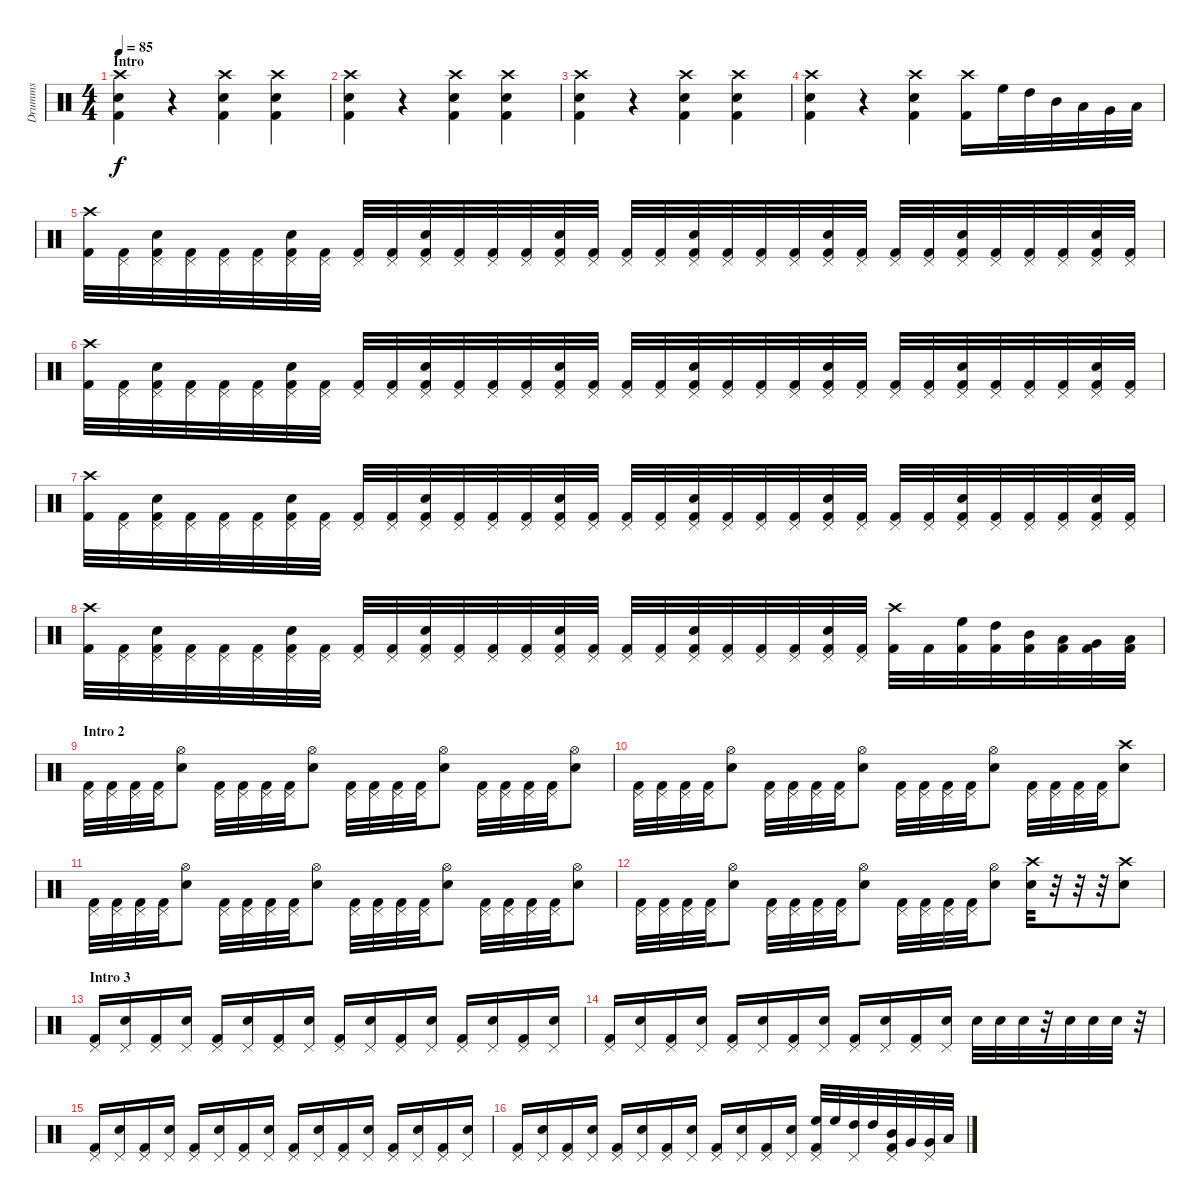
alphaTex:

\track ("Drumms" "Drumms") {instrument percussion}
\staff {score}
\articulation defaults
\ts (4 4)
\section ("" "Intro")
\tempo 85
\clef neutral
\ks c
("Crash high (hit)" "Snare (hit) 2" "Kick (hit) 2").4{dy f} r.4 ("Crash high (hit)" "Snare (hit) 2" "Kick (hit) 2").4 ("Crash high (hit)" "Snare (hit) 2" "Kick (hit) 2").4 |
("Crash high (hit)" "Snare (hit) 2" "Kick (hit) 2").4 r.4 ("Crash high (hit)" "Snare (hit) 2" "Kick (hit) 2").4 ("Crash high (hit)" "Snare (hit) 2" "Kick (hit) 2").4 |
("Crash high (hit)" "Snare (hit) 2" "Kick (hit) 2").4 r.4 ("Crash high (hit)" "Snare (hit) 2" "Kick (hit) 2").4 ("Crash high (hit)" "Snare (hit) 2" "Kick (hit) 2").4 |
("Crash high (hit)" "Snare (hit) 2" "Kick (hit) 2").4 r.4 ("Crash high (hit)" "Snare (hit) 2" "Kick (hit) 2").4 ("Crash high (hit)" "Kick (hit) 2").16 "High Floor Tom (hit)".32 "High Tom (hit)".32 "Mid Tom (hit)".32 "Low Tom (hit)".32 "Very Low Tom (hit)".32 "Low Floor Tom (hit)".32 |
("Crash high (hit)" "Kick (hit) 2").32 ("Pedal Hi-Hat (hit)" "Kick (hit) 2").32 ("Pedal Hi-Hat (hit)" "Snare (hit) 2" "Kick (hit) 2").32 ("Pedal Hi-Hat (hit)" "Kick (hit) 2").32 ("Pedal Hi-Hat (hit)" "Kick (hit) 2").32 ("Pedal Hi-Hat (hit)" "Kick (hit) 2").32 ("Pedal Hi-Hat (hit)" "Snare (hit) 2" "Kick (hit) 2").32 ("Pedal Hi-Hat (hit)" "Kick (hit) 2").32 ("Pedal Hi-Hat (hit)" "Kick (hit) 2").32 ("Pedal Hi-Hat (hit)" "Kick (hit) 2").32 ("Pedal Hi-Hat (hit)" "Snare (hit) 2" "Kick (hit) 2").32 ("Pedal Hi-Hat (hit)" "Kick (hit) 2").32 ("Pedal Hi-Hat (hit)" "Kick (hit) 2").32 ("Pedal Hi-Hat (hit)" "Kick (hit) 2").32 ("Pedal Hi-Hat (hit)" "Snare (hit) 2" "Kick (hit) 2").32 ("Pedal Hi-Hat (hit)" "Kick (hit) 2").32 ("Pedal Hi-Hat (hit)" "Kick (hit) 2").32 ("Pedal Hi-Hat (hit)" "Kick (hit) 2").32 ("Pedal Hi-Hat (hit)" "Snare (hit) 2" "Kick (hit) 2").32 ("Pedal Hi-Hat (hit)" "Kick (hit) 2").32 ("Pedal Hi-Hat (hit)" "Kick (hit) 2").32 ("Pedal Hi-Hat (hit)" "Kick (hit) 2").32 ("Pedal Hi-Hat (hit)" "Snare (hit) 2" "Kick (hit) 2").32 ("Pedal Hi-Hat (hit)" "Kick (hit) 2").32 ("Pedal Hi-Hat (hit)" "Kick (hit) 2").32 ("Pedal Hi-Hat (hit)" "Kick (hit) 2").32 ("Pedal Hi-Hat (hit)" "Snare (hit) 2" "Kick (hit) 2").32 ("Pedal Hi-Hat (hit)" "Kick (hit) 2").32 ("Pedal Hi-Hat (hit)" "Kick (hit) 2").32 ("Pedal Hi-Hat (hit)" "Kick (hit) 2").32 ("Pedal Hi-Hat (hit)" "Snare (hit) 2" "Kick (hit) 2").32 ("Pedal Hi-Hat (hit)" "Kick (hit) 2").32 |
("Crash high (hit)" "Kick (hit) 2").32 ("Pedal Hi-Hat (hit)" "Kick (hit) 2").32 ("Pedal Hi-Hat (hit)" "Snare (hit) 2" "Kick (hit) 2").32 ("Pedal Hi-Hat (hit)" "Kick (hit) 2").32 ("Pedal Hi-Hat (hit)" "Kick (hit) 2").32 ("Pedal Hi-Hat (hit)" "Kick (hit) 2").32 ("Pedal Hi-Hat (hit)" "Snare (hit) 2" "Kick (hit) 2").32 ("Pedal Hi-Hat (hit)" "Kick (hit) 2").32 ("Pedal Hi-Hat (hit)" "Kick (hit) 2").32 ("Pedal Hi-Hat (hit)" "Kick (hit) 2").32 ("Pedal Hi-Hat (hit)" "Snare (hit) 2" "Kick (hit) 2").32 ("Pedal Hi-Hat (hit)" "Kick (hit) 2").32 ("Pedal Hi-Hat (hit)" "Kick (hit) 2").32 ("Pedal Hi-Hat (hit)" "Kick (hit) 2").32 ("Pedal Hi-Hat (hit)" "Snare (hit) 2" "Kick (hit) 2").32 ("Pedal Hi-Hat (hit)" "Kick (hit) 2").32 ("Pedal Hi-Hat (hit)" "Kick (hit) 2").32 ("Pedal Hi-Hat (hit)" "Kick (hit) 2").32 ("Pedal Hi-Hat (hit)" "Snare (hit) 2" "Kick (hit) 2").32 ("Pedal Hi-Hat (hit)" "Kick (hit) 2").32 ("Pedal Hi-Hat (hit)" "Kick (hit) 2").32 ("Pedal Hi-Hat (hit)" "Kick (hit) 2").32 ("Pedal Hi-Hat (hit)" "Snare (hit) 2" "Kick (hit) 2").32 ("Pedal Hi-Hat (hit)" "Kick (hit) 2").32 ("Pedal Hi-Hat (hit)" "Kick (hit) 2").32 ("Pedal Hi-Hat (hit)" "Kick (hit) 2").32 ("Pedal Hi-Hat (hit)" "Snare (hit) 2" "Kick (hit) 2").32 ("Pedal Hi-Hat (hit)" "Kick (hit) 2").32 ("Pedal Hi-Hat (hit)" "Kick (hit) 2").32 ("Pedal Hi-Hat (hit)" "Kick (hit) 2").32 ("Pedal Hi-Hat (hit)" "Snare (hit) 2" "Kick (hit) 2").32 ("Pedal Hi-Hat (hit)" "Kick (hit) 2").32 |
("Crash high (hit)" "Kick (hit) 2").32 ("Pedal Hi-Hat (hit)" "Kick (hit) 2").32 ("Pedal Hi-Hat (hit)" "Snare (hit) 2" "Kick (hit) 2").32 ("Pedal Hi-Hat (hit)" "Kick (hit) 2").32 ("Pedal Hi-Hat (hit)" "Kick (hit) 2").32 ("Pedal Hi-Hat (hit)" "Kick (hit) 2").32 ("Pedal Hi-Hat (hit)" "Snare (hit) 2" "Kick (hit) 2").32 ("Pedal Hi-Hat (hit)" "Kick (hit) 2").32 ("Pedal Hi-Hat (hit)" "Kick (hit) 2").32 ("Pedal Hi-Hat (hit)" "Kick (hit) 2").32 ("Pedal Hi-Hat (hit)" "Snare (hit) 2" "Kick (hit) 2").32 ("Pedal Hi-Hat (hit)" "Kick (hit) 2").32 ("Pedal Hi-Hat (hit)" "Kick (hit) 2").32 ("Pedal Hi-Hat (hit)" "Kick (hit) 2").32 ("Pedal Hi-Hat (hit)" "Snare (hit) 2" "Kick (hit) 2").32 ("Pedal Hi-Hat (hit)" "Kick (hit) 2").32 ("Pedal Hi-Hat (hit)" "Kick (hit) 2").32 ("Pedal Hi-Hat (hit)" "Kick (hit) 2").32 ("Pedal Hi-Hat (hit)" "Snare (hit) 2" "Kick (hit) 2").32 ("Pedal Hi-Hat (hit)" "Kick (hit) 2").32 ("Pedal Hi-Hat (hit)" "Kick (hit) 2").32 ("Pedal Hi-Hat (hit)" "Kick (hit) 2").32 ("Pedal Hi-Hat (hit)" "Snare (hit) 2" "Kick (hit) 2").32 ("Pedal Hi-Hat (hit)" "Kick (hit) 2").32 ("Pedal Hi-Hat (hit)" "Kick (hit) 2").32 ("Pedal Hi-Hat (hit)" "Kick (hit) 2").32 ("Pedal Hi-Hat (hit)" "Snare (hit) 2" "Kick (hit) 2").32 ("Pedal Hi-Hat (hit)" "Kick (hit) 2").32 ("Pedal Hi-Hat (hit)" "Kick (hit) 2").32 ("Pedal Hi-Hat (hit)" "Kick (hit) 2").32 ("Pedal Hi-Hat (hit)" "Snare (hit) 2" "Kick (hit) 2").32 ("Pedal Hi-Hat (hit)" "Kick (hit) 2").32 |
("Crash high (hit)" "Kick (hit) 2").32 ("Pedal Hi-Hat (hit)" "Kick (hit) 2").32 ("Pedal Hi-Hat (hit)" "Snare (hit) 2" "Kick (hit) 2").32 ("Pedal Hi-Hat (hit)" "Kick (hit) 2").32 ("Pedal Hi-Hat (hit)" "Kick (hit) 2").32 ("Pedal Hi-Hat (hit)" "Kick (hit) 2").32 ("Pedal Hi-Hat (hit)" "Snare (hit) 2" "Kick (hit) 2").32 ("Pedal Hi-Hat (hit)" "Kick (hit) 2").32 ("Pedal Hi-Hat (hit)" "Kick (hit) 2").32 ("Pedal Hi-Hat (hit)" "Kick (hit) 2").32 ("Pedal Hi-Hat (hit)" "Snare (hit) 2" "Kick (hit) 2").32 ("Pedal Hi-Hat (hit)" "Kick (hit) 2").32 ("Pedal Hi-Hat (hit)" "Kick (hit) 2").32 ("Pedal Hi-Hat (hit)" "Kick (hit) 2").32 ("Pedal Hi-Hat (hit)" "Snare (hit) 2" "Kick (hit) 2").32 ("Pedal Hi-Hat (hit)" "Kick (hit) 2").32 ("Pedal Hi-Hat (hit)" "Kick (hit) 2").32 ("Pedal Hi-Hat (hit)" "Kick (hit) 2").32 ("Pedal Hi-Hat (hit)" "Snare (hit) 2" "Kick (hit) 2").32 ("Pedal Hi-Hat (hit)" "Kick (hit) 2").32 ("Pedal Hi-Hat (hit)" "Kick (hit) 2").32 ("Pedal Hi-Hat (hit)" "Kick (hit) 2").32 ("Pedal Hi-Hat (hit)" "Snare (hit) 2" "Kick (hit) 2").32 ("Pedal Hi-Hat (hit)" "Kick (hit) 2").32 ("Crash high (hit)" "Kick (hit) 2").32 "Kick (hit) 2".32 ("High Floor Tom (hit)" "Kick (hit) 2").32 ("High Tom (hit)" "Kick (hit) 2").32 ("Mid Tom (hit)" "Kick (hit) 2").32 ("Low Tom (hit)" "Kick (hit) 2").32 ("Very Low Tom (hit)" "Kick (hit) 2").32 ("Low Floor Tom (hit)" "Kick (hit) 2").32 |
\section ("" "Intro 2")
("Pedal Hi-Hat (hit)" "Kick (hit) 2").32 ("Pedal Hi-Hat (hit)" "Kick (hit) 2").32 ("Pedal Hi-Hat (hit)" "Kick (hit) 2").32 ("Pedal Hi-Hat (hit)" "Kick (hit) 2").32 ("Hi-Hat (open)" "Snare (hit) 2").8 ("Pedal Hi-Hat (hit)" "Kick (hit) 2").32 ("Pedal Hi-Hat (hit)" "Kick (hit) 2").32 ("Pedal Hi-Hat (hit)" "Kick (hit) 2").32 ("Pedal Hi-Hat (hit)" "Kick (hit) 2").32 ("Hi-Hat (open)" "Snare (hit) 2").8 ("Pedal Hi-Hat (hit)" "Kick (hit) 2").32 ("Pedal Hi-Hat (hit)" "Kick (hit) 2").32 ("Pedal Hi-Hat (hit)" "Kick (hit) 2").32 ("Pedal Hi-Hat (hit)" "Kick (hit) 2").32 ("Hi-Hat (open)" "Snare (hit) 2").8 ("Pedal Hi-Hat (hit)" "Kick (hit) 2").32 ("Pedal Hi-Hat (hit)" "Kick (hit) 2").32 ("Pedal Hi-Hat (hit)" "Kick (hit) 2").32 ("Pedal Hi-Hat (hit)" "Kick (hit) 2").32 ("Hi-Hat (open)" "Snare (hit) 2").8 |
("Pedal Hi-Hat (hit)" "Kick (hit) 2").32 ("Pedal Hi-Hat (hit)" "Kick (hit) 2").32 ("Pedal Hi-Hat (hit)" "Kick (hit) 2").32 ("Pedal Hi-Hat (hit)" "Kick (hit) 2").32 ("Hi-Hat (open)" "Snare (hit) 2").8 ("Pedal Hi-Hat (hit)" "Kick (hit) 2").32 ("Pedal Hi-Hat (hit)" "Kick (hit) 2").32 ("Pedal Hi-Hat (hit)" "Kick (hit) 2").32 ("Pedal Hi-Hat (hit)" "Kick (hit) 2").32 ("Hi-Hat (open)" "Snare (hit) 2").8 ("Pedal Hi-Hat (hit)" "Kick (hit) 2").32 ("Pedal Hi-Hat (hit)" "Kick (hit) 2").32 ("Pedal Hi-Hat (hit)" "Kick (hit) 2").32 ("Pedal Hi-Hat (hit)" "Kick (hit) 2").32 ("Hi-Hat (open)" "Snare (hit) 2").8 ("Pedal Hi-Hat (hit)" "Kick (hit) 2").32 ("Pedal Hi-Hat (hit)" "Kick (hit) 2").32 ("Pedal Hi-Hat (hit)" "Kick (hit) 2").32 ("Pedal Hi-Hat (hit)" "Kick (hit) 2").32 ("Crash high (hit)" "Snare (hit) 2").8 |
("Pedal Hi-Hat (hit)" "Kick (hit) 2").32 ("Pedal Hi-Hat (hit)" "Kick (hit) 2").32 ("Pedal Hi-Hat (hit)" "Kick (hit) 2").32 ("Pedal Hi-Hat (hit)" "Kick (hit) 2").32 ("Hi-Hat (open)" "Snare (hit) 2").8 ("Pedal Hi-Hat (hit)" "Kick (hit) 2").32 ("Pedal Hi-Hat (hit)" "Kick (hit) 2").32 ("Pedal Hi-Hat (hit)" "Kick (hit) 2").32 ("Pedal Hi-Hat (hit)" "Kick (hit) 2").32 ("Hi-Hat (open)" "Snare (hit) 2").8 ("Pedal Hi-Hat (hit)" "Kick (hit) 2").32 ("Pedal Hi-Hat (hit)" "Kick (hit) 2").32 ("Pedal Hi-Hat (hit)" "Kick (hit) 2").32 ("Pedal Hi-Hat (hit)" "Kick (hit) 2").32 ("Hi-Hat (open)" "Snare (hit) 2").8 ("Pedal Hi-Hat (hit)" "Kick (hit) 2").32 ("Pedal Hi-Hat (hit)" "Kick (hit) 2").32 ("Pedal Hi-Hat (hit)" "Kick (hit) 2").32 ("Pedal Hi-Hat (hit)" "Kick (hit) 2").32 ("Hi-Hat (open)" "Snare (hit) 2").8 |
("Pedal Hi-Hat (hit)" "Kick (hit) 2").32 ("Pedal Hi-Hat (hit)" "Kick (hit) 2").32 ("Pedal Hi-Hat (hit)" "Kick (hit) 2").32 ("Pedal Hi-Hat (hit)" "Kick (hit) 2").32 ("Hi-Hat (open)" "Snare (hit) 2").8 ("Pedal Hi-Hat (hit)" "Kick (hit) 2").32 ("Pedal Hi-Hat (hit)" "Kick (hit) 2").32 ("Pedal Hi-Hat (hit)" "Kick (hit) 2").32 ("Pedal Hi-Hat (hit)" "Kick (hit) 2").32 ("Hi-Hat (open)" "Snare (hit) 2").8 ("Pedal Hi-Hat (hit)" "Kick (hit) 2").32 ("Pedal Hi-Hat (hit)" "Kick (hit) 2").32 ("Pedal Hi-Hat (hit)" "Kick (hit) 2").32 ("Pedal Hi-Hat (hit)" "Kick (hit) 2").32 ("Hi-Hat (open)" "Snare (hit) 2").8 ("Crash high (hit)" "Snare (hit) 2").32 r.32 r.32 r.32 ("Crash high (hit)" "Snare (hit) 2").8 |
\section ("" "Intro 3")
("Pedal Hi-Hat (hit)" "Kick (hit) 2").16 ("Pedal Hi-Hat (hit)" "Snare (hit) 2").16 ("Pedal Hi-Hat (hit)" "Kick (hit) 2").16 ("Pedal Hi-Hat (hit)" "Snare (hit) 2").16 ("Pedal Hi-Hat (hit)" "Kick (hit) 2").16 ("Pedal Hi-Hat (hit)" "Snare (hit) 2").16 ("Pedal Hi-Hat (hit)" "Kick (hit) 2").16 ("Pedal Hi-Hat (hit)" "Snare (hit) 2").16 ("Pedal Hi-Hat (hit)" "Kick (hit) 2").16 ("Pedal Hi-Hat (hit)" "Snare (hit) 2").16 ("Pedal Hi-Hat (hit)" "Kick (hit) 2").16 ("Pedal Hi-Hat (hit)" "Snare (hit) 2").16 ("Pedal Hi-Hat (hit)" "Kick (hit) 2").16 ("Pedal Hi-Hat (hit)" "Snare (hit) 2").16 ("Pedal Hi-Hat (hit)" "Kick (hit) 2").16 ("Pedal Hi-Hat (hit)" "Snare (hit) 2").16 |
("Pedal Hi-Hat (hit)" "Kick (hit) 2").16 ("Pedal Hi-Hat (hit)" "Snare (hit) 2").16 ("Pedal Hi-Hat (hit)" "Kick (hit) 2").16 ("Pedal Hi-Hat (hit)" "Snare (hit) 2").16 ("Pedal Hi-Hat (hit)" "Kick (hit) 2").16 ("Pedal Hi-Hat (hit)" "Snare (hit) 2").16 ("Pedal Hi-Hat (hit)" "Kick (hit) 2").16 ("Pedal Hi-Hat (hit)" "Snare (hit) 2").16 ("Pedal Hi-Hat (hit)" "Kick (hit) 2").16 ("Pedal Hi-Hat (hit)" "Snare (hit) 2").16 ("Pedal Hi-Hat (hit)" "Kick (hit) 2").16 ("Pedal Hi-Hat (hit)" "Snare (hit) 2").16 "Snare (hit) 2".32 "Snare (hit) 2".32 "Snare (hit) 2".32 r.32 "Snare (hit) 2".32 "Snare (hit) 2".32 "Snare (hit) 2".32 r.32 |
("Pedal Hi-Hat (hit)" "Kick (hit) 2").16 ("Pedal Hi-Hat (hit)" "Snare (hit) 2").16 ("Pedal Hi-Hat (hit)" "Kick (hit) 2").16 ("Pedal Hi-Hat (hit)" "Snare (hit) 2").16 ("Pedal Hi-Hat (hit)" "Kick (hit) 2").16 ("Pedal Hi-Hat (hit)" "Snare (hit) 2").16 ("Pedal Hi-Hat (hit)" "Kick (hit) 2").16 ("Pedal Hi-Hat (hit)" "Snare (hit) 2").16 ("Pedal Hi-Hat (hit)" "Kick (hit) 2").16 ("Pedal Hi-Hat (hit)" "Snare (hit) 2").16 ("Pedal Hi-Hat (hit)" "Kick (hit) 2").16 ("Pedal Hi-Hat (hit)" "Snare (hit) 2").16 ("Pedal Hi-Hat (hit)" "Kick (hit) 2").16 ("Pedal Hi-Hat (hit)" "Snare (hit) 2").16 ("Pedal Hi-Hat (hit)" "Kick (hit) 2").16 ("Pedal Hi-Hat (hit)" "Snare (hit) 2").16 |
("Pedal Hi-Hat (hit)" "Kick (hit) 2").16 ("Pedal Hi-Hat (hit)" "Snare (hit) 2").16 ("Pedal Hi-Hat (hit)" "Kick (hit) 2").16 ("Pedal Hi-Hat (hit)" "Snare (hit) 2").16 ("Pedal Hi-Hat (hit)" "Kick (hit) 2").16 ("Pedal Hi-Hat (hit)" "Snare (hit) 2").16 ("Pedal Hi-Hat (hit)" "Kick (hit) 2").16 ("Pedal Hi-Hat (hit)" "Snare (hit) 2").16 ("Pedal Hi-Hat (hit)" "Kick (hit) 2").16 ("Pedal Hi-Hat (hit)" "Snare (hit) 2").16 ("Pedal Hi-Hat (hit)" "Kick (hit) 2").16 ("Pedal Hi-Hat (hit)" "Snare (hit) 2").16 ("Pedal Hi-Hat (hit)" "High Floor Tom (hit)" "Kick (hit) 2").32 "High Floor Tom (hit)".32 ("Pedal Hi-Hat (hit)" "High Tom (hit)").32 "High Tom (hit)".32 ("Pedal Hi-Hat (hit)" "Mid Tom (hit)" "Kick (hit) 2").32 "Very Low Tom (hit)".32 ("Pedal Hi-Hat (hit)" "Very Low Tom (hit)").32 "Low Floor Tom (hit)".32
